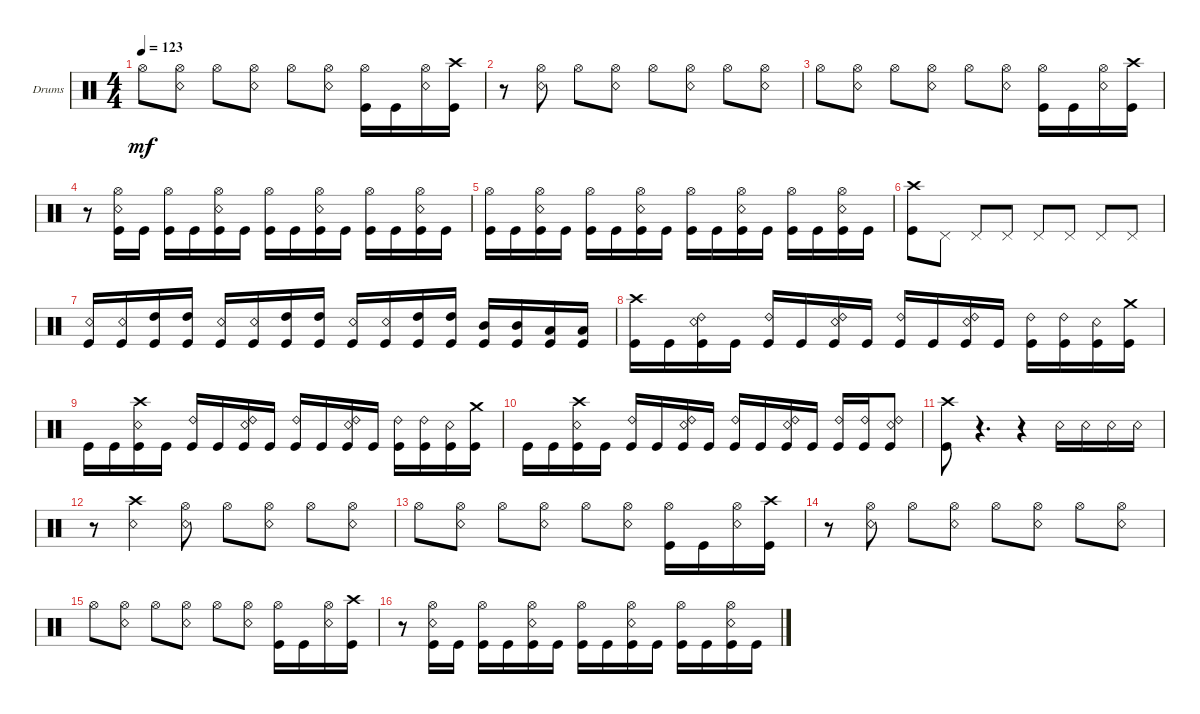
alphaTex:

\defaultSystemsLayout 4
\bracketExtendMode groupsimilarinstruments
\firstSystemTrackNameOrientation horizontal
\otherSystemsTrackNameOrientation horizontal
\track ("Drums" "Drums") {instrument percussion}
\staff {score}
\articulation defaults
\ts (4 4)
\tempo 123
\clef neutral
\scale
0.333333
\ks c "Hi-Hat (open)".8{dy mf}
("Hi-Hat (open)" "Snare (rim shot)").8 "Hi-Hat (open)".8 ("Hi-Hat (open)" "Snare (rim shot)").8 "Hi-Hat (open)".8 ("Hi-Hat (open)" "Snare (rim shot)").8 ("Kick (hit)" "Hi-Hat (open)").16 "Kick (hit)".16 ("Snare (rim shot)" "Hi-Hat (open)").16 ("Kick (hit)" "Crash high (hit)").16 |
\scale
0.333333 r.8 ("Snare (rim shot)" "Hi-Hat (open)").8 "Hi-Hat (open)".8 ("Hi-Hat (open)" "Snare (rim shot)").8 "Hi-Hat (open)".8 ("Hi-Hat (open)" "Snare (rim shot)").8 "Hi-Hat (open)".8 ("Hi-Hat (open)" "Snare (rim shot)").8 |
\scale
0.333333 "Hi-Hat (open)".8 ("Hi-Hat (open)" "Snare (rim shot)").8 "Hi-Hat (open)".8 ("Hi-Hat (open)" "Snare (rim shot)").8 "Hi-Hat (open)".8 ("Hi-Hat (open)" "Snare (rim shot)").8 ("Kick (hit)" "Hi-Hat (open)").16 "Kick (hit)".16 ("Snare (rim shot)" "Hi-Hat (open)").16 ("Kick (hit)" "Crash high (hit)").16 |
\scale
0.333333 r.8 ("Kick (hit)" "Hi-Hat (open)" "Snare (rim shot)").16 "Kick (hit)".16 ("Kick (hit)" "Hi-Hat (open)").16 "Kick (hit)".16 ("Kick (hit)" "Hi-Hat (open)" "Snare (rim shot)").16 "Kick (hit)".16 ("Kick (hit)" "Hi-Hat (open)").16 "Kick (hit)".16 ("Kick (hit)" "Hi-Hat (open)" "Snare (rim shot)").16 "Kick (hit)".16 ("Kick (hit)" "Hi-Hat (open)").16 "Kick (hit)".16 ("Kick (hit)" "Snare (rim shot)" "Hi-Hat (open)").16 "Kick (hit)".16 |
\scale
0.333333 ("Kick (hit)" "Hi-Hat (open)").16 "Kick (hit)".16 ("Kick (hit)" "Hi-Hat (open)" "Snare (rim shot)").16 "Kick (hit)".16 ("Kick (hit)" "Hi-Hat (open)").16 "Kick (hit)".16 ("Kick (hit)" "Hi-Hat (open)" "Snare (rim shot)").16 "Kick (hit)".16 ("Kick (hit)" "Hi-Hat (open)").16 "Kick (hit)".16 ("Kick (hit)" "Hi-Hat (open)" "Snare (rim shot)").16 "Kick (hit)".16 ("Kick (hit)" "Hi-Hat (open)").16 "Kick (hit)".16 ("Kick (hit)" "Hi-Hat (open)" "Snare (rim shot)").16 "Kick (hit)".16 |
\scale
0.333333 ("Kick (hit)" "Crash high (hit)").8 "Pedal Hi-Hat (hit)".8 "Pedal Hi-Hat (hit)".8 "Pedal Hi-Hat (hit)".8 "Pedal Hi-Hat (hit)".8 "Pedal Hi-Hat (hit)".8 "Pedal Hi-Hat (hit)".8 "Pedal Hi-Hat (hit)".8 |
\scale
0.333333 ("Snare (rim shot)" "Kick (hit)").16 ("Snare (rim shot)" "Kick (hit)").16 ("High Tom (hit)" "Kick (hit)").16 ("High Tom (hit)" "Kick (hit)").16 ("Snare (rim shot)" "Kick (hit)").16 ("Snare (rim shot)" "Kick (hit)").16 ("High Tom (hit)" "Kick (hit)").16 ("High Tom (hit)" "Kick (hit)").16 ("Snare (rim shot)" "Kick (hit)").16 ("Snare (rim shot)" "Kick (hit)").16 ("High Tom (hit)" "Kick (hit)").16 ("High Tom (hit)" "Kick (hit)").16 ("Mid Tom (hit)" "Kick (hit)").16 ("Mid Tom (hit)" "Kick (hit)").16 ("Low Tom (hit)" "Kick (hit)").16 ("Low Tom (hit)" "Kick (hit)").16 |
\scale
0.333333 ("Kick (hit)" "Crash high (hit)").16 "Kick (hit)".16 ("Kick (hit)" "Ride (bell) 2" "Snare (rim shot)").16 "Kick (hit)".16 ("Kick (hit)" "Ride (bell) 2").16 "Kick (hit)".16 ("Kick (hit)" "Ride (bell) 2" "Snare (rim shot)").16 "Kick (hit)".16 ("Kick (hit)" "Ride (bell) 2").16 "Kick (hit)".16 ("Kick (hit)" "Ride (bell) 2" "Snare (rim shot)").16 "Kick (hit)".16 ("Kick (hit)" "Ride (bell) 2").16 ("Kick (hit)" "Ride (bell) 2").16 ("Kick (hit)" "Snare (rim shot)").16 ("Kick (hit)" "Crash medium (hit)").16 |
\scale
0.333333 "Kick (hit)".16 "Kick (hit)".16 ("Kick (hit)" "Snare (rim shot)" "Crash high (hit)").16 "Kick (hit)".16 ("Kick (hit)" "Ride (bell) 2").16 "Kick (hit)".16 ("Kick (hit)" "Ride (bell) 2" "Snare (rim shot)").16 "Kick (hit)".16 ("Kick (hit)" "Ride (bell) 2").16 "Kick (hit)".16 ("Kick (hit)" "Ride (bell) 2" "Snare (rim shot)").16 "Kick (hit)".16 ("Kick (hit)" "Ride (bell) 2").16 ("Kick (hit)" "Ride (bell) 2").16 ("Kick (hit)" "Snare (rim shot)").16 ("Kick (hit)" "Crash medium (hit)").16 |
\scale
0.333333 "Kick (hit)".16 "Kick (hit)".16 ("Kick (hit)" "Snare (rim shot)" "Crash high (hit)").16 "Kick (hit)".16 ("Kick (hit)" "Ride (bell) 2").16 "Kick (hit)".16 ("Kick (hit)" "Ride (bell) 2" "Snare (rim shot)").16 "Kick (hit)".16 ("Kick (hit)" "Ride (bell) 2").16 "Kick (hit)".16 ("Kick (hit)" "Ride (bell) 2" "Snare (rim shot)").16 "Kick (hit)".16 ("Kick (hit)" "Ride (bell) 2").16 ("Kick (hit)" "Ride (bell) 2").16 ("Kick (hit)" "Snare (rim shot)" "Ride (bell) 2").8 |
\scale
0.333333 ("Crash high (hit)" "Kick (hit)").8 r.4{d} r.4 "Snare (rim shot)".16 "Snare (rim shot)".16 "Snare (rim shot)".16 "Snare (rim shot)".16 |
\scale
0.333333 r.8 ("Snare (rim shot)" "Crash high (hit)").4 ("Hi-Hat (open)" "Snare (rim shot)").8 "Hi-Hat (open)".8 ("Hi-Hat (open)" "Snare (rim shot)").8 "Hi-Hat (open)".8 ("Hi-Hat (open)" "Snare (rim shot)").8 |
\scale
0.333333 "Hi-Hat (open)".8 ("Hi-Hat (open)" "Snare (rim shot)").8 "Hi-Hat (open)".8 ("Hi-Hat (open)" "Snare (rim shot)").8 "Hi-Hat (open)".8 ("Hi-Hat (open)" "Snare (rim shot)").8 ("Kick (hit)" "Hi-Hat (open)").16 "Kick (hit)".16 ("Snare (rim shot)" "Hi-Hat (open)").16 ("Kick (hit)" "Crash high (hit)").16 |
\scale
0.333333 r.8 ("Snare (rim shot)" "Hi-Hat (open)").8 "Hi-Hat (open)".8 ("Hi-Hat (open)" "Snare (rim shot)").8 "Hi-Hat (open)".8 ("Hi-Hat (open)" "Snare (rim shot)").8 "Hi-Hat (open)".8 ("Hi-Hat (open)" "Snare (rim shot)").8 |
\scale
0.333333 "Hi-Hat (open)".8 ("Hi-Hat (open)" "Snare (rim shot)").8 "Hi-Hat (open)".8 ("Hi-Hat (open)" "Snare (rim shot)").8 "Hi-Hat (open)".8 ("Hi-Hat (open)" "Snare (rim shot)").8 ("Kick (hit)" "Hi-Hat (open)").16 "Kick (hit)".16 ("Snare (rim shot)" "Hi-Hat (open)").16 ("Kick (hit)" "Crash high (hit)").16 |
\scale
0.333333 r.8 ("Kick (hit)" "Hi-Hat (open)" "Snare (rim shot)").16 "Kick (hit)".16 ("Kick (hit)" "Hi-Hat (open)").16 "Kick (hit)".16 ("Kick (hit)" "Hi-Hat (open)" "Snare (rim shot)").16 "Kick (hit)".16 ("Kick (hit)" "Hi-Hat (open)").16 "Kick (hit)".16 ("Kick (hit)" "Hi-Hat (open)" "Snare (rim shot)").16 "Kick (hit)".16 ("Kick (hit)" "Hi-Hat (open)").16 "Kick (hit)".16 ("Kick (hit)" "Snare (rim shot)" "Hi-Hat (open)").16 "Kick (hit)".16
